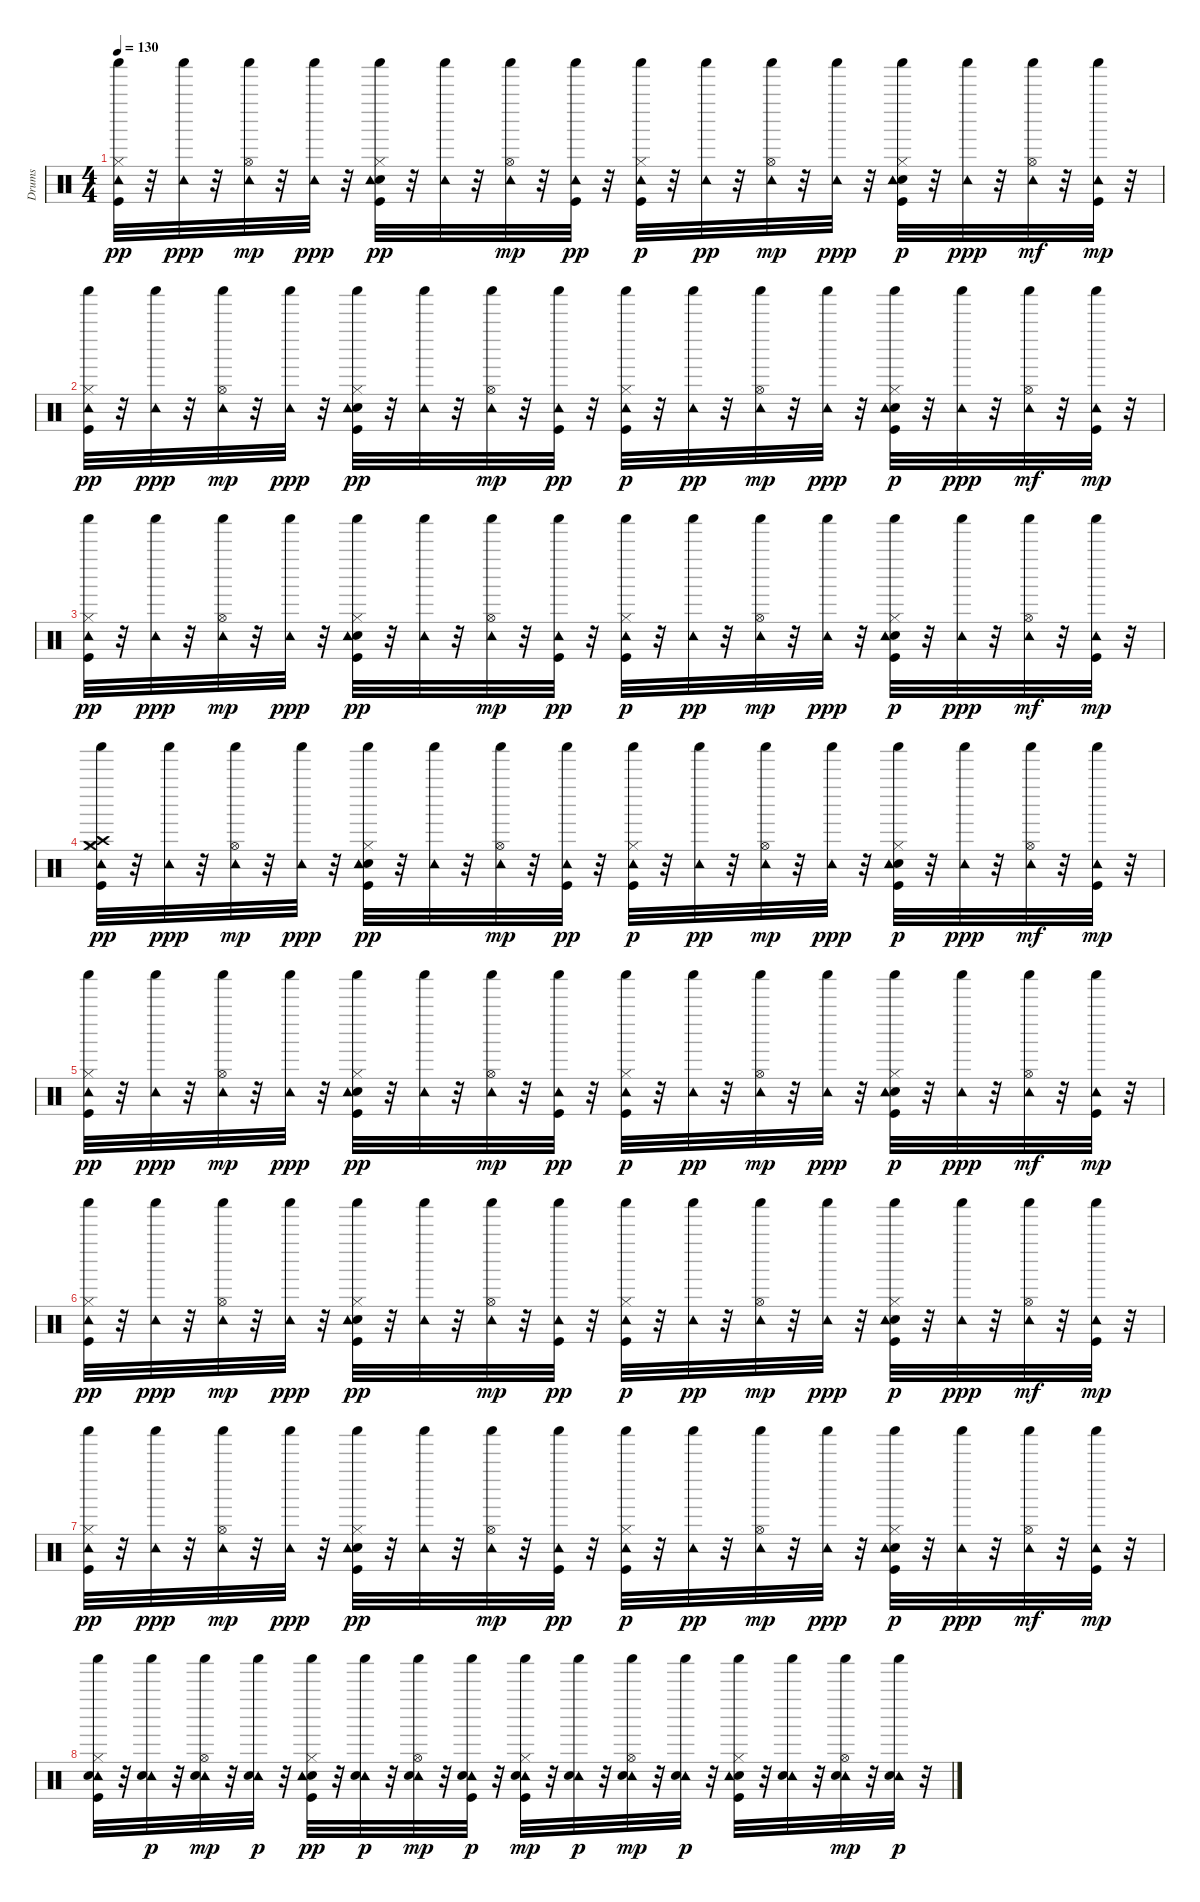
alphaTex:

\track ("Drums" "Drums") {instrument percussion}
\staff {score}
\articulation defaults
\ts (4 4)
\tempo 130
\clef neutral
\ks c
("Kick (hit)" "Hi-Hat (closed)" "Shaker (hit)" "Tambourine (hit)").32{dy pp} r.32 ("Shaker (hit)" "Tambourine (hit)").32{dy ppp} r.32 ("Hi-Hat (open)" "Shaker (hit)" "Tambourine (hit)").32{dy mp} r.32 ("Shaker (hit)" "Tambourine (hit)").32{dy ppp} r.32 ("Kick (hit)" "Hi-Hat (closed)" "Shaker (hit)" "Snare (hit) 2" "Tambourine (hit)").32{dy pp} r.32 ("Shaker (hit)" "Tambourine (hit)").32 r.32 ("Hi-Hat (open)" "Shaker (hit)" "Tambourine (hit)").32{dy mp} r.32 ("Shaker (hit)" "Kick (hit)" "Tambourine (hit)").32{dy pp} r.32 ("Kick (hit)" "Hi-Hat (closed)" "Shaker (hit)" "Tambourine (hit)").32{dy p} r.32 ("Shaker (hit)" "Tambourine (hit)").32{dy pp} r.32 ("Hi-Hat (open)" "Shaker (hit)" "Tambourine (hit)").32{dy mp} r.32 ("Shaker (hit)" "Tambourine (hit)").32{dy ppp} r.32 ("Kick (hit)" "Hi-Hat (closed)" "Shaker (hit)" "Snare (hit) 2" "Tambourine (hit)").32{dy p} r.32 ("Shaker (hit)" "Tambourine (hit)").32{dy ppp} r.32 ("Hi-Hat (open)" "Shaker (hit)" "Tambourine (hit)").32{dy mf} r.32 ("Shaker (hit)" "Tambourine (hit)" "Kick (hit)").32{dy mp} r.32 |
("Kick (hit)" "Hi-Hat (closed)" "Shaker (hit)" "Tambourine (hit)").32{dy pp} r.32 ("Shaker (hit)" "Tambourine (hit)").32{dy ppp} r.32 ("Hi-Hat (open)" "Shaker (hit)" "Tambourine (hit)").32{dy mp} r.32 ("Shaker (hit)" "Tambourine (hit)").32{dy ppp} r.32 ("Kick (hit)" "Hi-Hat (closed)" "Shaker (hit)" "Snare (hit) 2" "Tambourine (hit)").32{dy pp} r.32 ("Shaker (hit)" "Tambourine (hit)").32 r.32 ("Hi-Hat (open)" "Shaker (hit)" "Tambourine (hit)").32{dy mp} r.32 ("Shaker (hit)" "Kick (hit)" "Tambourine (hit)").32{dy pp} r.32 ("Kick (hit)" "Hi-Hat (closed)" "Shaker (hit)" "Tambourine (hit)").32{dy p} r.32 ("Shaker (hit)" "Tambourine (hit)").32{dy pp} r.32 ("Hi-Hat (open)" "Shaker (hit)" "Tambourine (hit)").32{dy mp} r.32 ("Shaker (hit)" "Tambourine (hit)").32{dy ppp} r.32 ("Kick (hit)" "Hi-Hat (closed)" "Shaker (hit)" "Snare (hit) 2" "Tambourine (hit)").32{dy p} r.32 ("Shaker (hit)" "Tambourine (hit)").32{dy ppp} r.32 ("Hi-Hat (open)" "Shaker (hit)" "Tambourine (hit)").32{dy mf} r.32 ("Shaker (hit)" "Tambourine (hit)" "Kick (hit)").32{dy mp} r.32 |
("Kick (hit)" "Hi-Hat (closed)" "Shaker (hit)" "Tambourine (hit)").32{dy pp} r.32 ("Shaker (hit)" "Tambourine (hit)").32{dy ppp} r.32 ("Hi-Hat (open)" "Shaker (hit)" "Tambourine (hit)").32{dy mp} r.32 ("Shaker (hit)" "Tambourine (hit)").32{dy ppp} r.32 ("Kick (hit)" "Hi-Hat (closed)" "Shaker (hit)" "Snare (hit) 2" "Tambourine (hit)").32{dy pp} r.32 ("Shaker (hit)" "Tambourine (hit)").32 r.32 ("Hi-Hat (open)" "Shaker (hit)" "Tambourine (hit)").32{dy mp} r.32 ("Shaker (hit)" "Kick (hit)" "Tambourine (hit)").32{dy pp} r.32 ("Kick (hit)" "Hi-Hat (closed)" "Shaker (hit)" "Tambourine (hit)").32{dy p} r.32 ("Shaker (hit)" "Tambourine (hit)").32{dy pp} r.32 ("Hi-Hat (open)" "Shaker (hit)" "Tambourine (hit)").32{dy mp} r.32 ("Shaker (hit)" "Tambourine (hit)").32{dy ppp} r.32 ("Kick (hit)" "Hi-Hat (closed)" "Shaker (hit)" "Snare (hit) 2" "Tambourine (hit)").32{dy p} r.32 ("Shaker (hit)" "Tambourine (hit)").32{dy ppp} r.32 ("Hi-Hat (open)" "Shaker (hit)" "Tambourine (hit)").32{dy mf} r.32 ("Shaker (hit)" "Tambourine (hit)" "Kick (hit)").32{dy mp} r.32 |
("Kick (hit)" "Hi-Hat (closed)" "Crash high (hit)" "Crash medium (hit)" "Shaker (hit)" "Tambourine (hit)").32{dy pp} r.32 ("Shaker (hit)" "Tambourine (hit)").32{dy ppp} r.32 ("Hi-Hat (open)" "Shaker (hit)" "Tambourine (hit)").32{dy mp} r.32 ("Shaker (hit)" "Tambourine (hit)").32{dy ppp} r.32 ("Kick (hit)" "Hi-Hat (closed)" "Shaker (hit)" "Snare (hit) 2" "Tambourine (hit)").32{dy pp} r.32 ("Shaker (hit)" "Tambourine (hit)").32 r.32 ("Hi-Hat (open)" "Shaker (hit)" "Tambourine (hit)").32{dy mp} r.32 ("Shaker (hit)" "Kick (hit)" "Tambourine (hit)").32{dy pp} r.32 ("Kick (hit)" "Hi-Hat (closed)" "Shaker (hit)" "Tambourine (hit)").32{dy p} r.32 ("Shaker (hit)" "Tambourine (hit)").32{dy pp} r.32 ("Hi-Hat (open)" "Shaker (hit)" "Tambourine (hit)").32{dy mp} r.32 ("Shaker (hit)" "Tambourine (hit)").32{dy ppp} r.32 ("Kick (hit)" "Hi-Hat (closed)" "Shaker (hit)" "Snare (hit) 2" "Tambourine (hit)").32{dy p} r.32 ("Shaker (hit)" "Tambourine (hit)").32{dy ppp} r.32 ("Hi-Hat (open)" "Shaker (hit)" "Tambourine (hit)").32{dy mf} r.32 ("Shaker (hit)" "Tambourine (hit)" "Kick (hit)").32{dy mp} r.32 |
("Kick (hit)" "Hi-Hat (closed)" "Shaker (hit)" "Tambourine (hit)").32{dy pp} r.32 ("Shaker (hit)" "Tambourine (hit)").32{dy ppp} r.32 ("Hi-Hat (open)" "Shaker (hit)" "Tambourine (hit)").32{dy mp} r.32 ("Shaker (hit)" "Tambourine (hit)").32{dy ppp} r.32 ("Kick (hit)" "Hi-Hat (closed)" "Shaker (hit)" "Snare (hit) 2" "Tambourine (hit)").32{dy pp} r.32 ("Shaker (hit)" "Tambourine (hit)").32 r.32 ("Hi-Hat (open)" "Shaker (hit)" "Tambourine (hit)").32{dy mp} r.32 ("Shaker (hit)" "Kick (hit)" "Tambourine (hit)").32{dy pp} r.32 ("Kick (hit)" "Hi-Hat (closed)" "Shaker (hit)" "Tambourine (hit)").32{dy p} r.32 ("Shaker (hit)" "Tambourine (hit)").32{dy pp} r.32 ("Hi-Hat (open)" "Shaker (hit)" "Tambourine (hit)").32{dy mp} r.32 ("Shaker (hit)" "Tambourine (hit)").32{dy ppp} r.32 ("Kick (hit)" "Hi-Hat (closed)" "Shaker (hit)" "Snare (hit) 2" "Tambourine (hit)").32{dy p} r.32 ("Shaker (hit)" "Tambourine (hit)").32{dy ppp} r.32 ("Hi-Hat (open)" "Shaker (hit)" "Tambourine (hit)").32{dy mf} r.32 ("Shaker (hit)" "Tambourine (hit)" "Kick (hit)").32{dy mp} r.32 |
("Kick (hit)" "Hi-Hat (closed)" "Shaker (hit)" "Tambourine (hit)").32{dy pp} r.32 ("Shaker (hit)" "Tambourine (hit)").32{dy ppp} r.32 ("Hi-Hat (open)" "Shaker (hit)" "Tambourine (hit)").32{dy mp} r.32 ("Shaker (hit)" "Tambourine (hit)").32{dy ppp} r.32 ("Kick (hit)" "Hi-Hat (closed)" "Shaker (hit)" "Snare (hit) 2" "Tambourine (hit)").32{dy pp} r.32 ("Shaker (hit)" "Tambourine (hit)").32 r.32 ("Hi-Hat (open)" "Shaker (hit)" "Tambourine (hit)").32{dy mp} r.32 ("Shaker (hit)" "Kick (hit)" "Tambourine (hit)").32{dy pp} r.32 ("Kick (hit)" "Hi-Hat (closed)" "Shaker (hit)" "Tambourine (hit)").32{dy p} r.32 ("Shaker (hit)" "Tambourine (hit)").32{dy pp} r.32 ("Hi-Hat (open)" "Shaker (hit)" "Tambourine (hit)").32{dy mp} r.32 ("Shaker (hit)" "Tambourine (hit)").32{dy ppp} r.32 ("Kick (hit)" "Hi-Hat (closed)" "Shaker (hit)" "Snare (hit) 2" "Tambourine (hit)").32{dy p} r.32 ("Shaker (hit)" "Tambourine (hit)").32{dy ppp} r.32 ("Hi-Hat (open)" "Shaker (hit)" "Tambourine (hit)").32{dy mf} r.32 ("Shaker (hit)" "Tambourine (hit)" "Kick (hit)").32{dy mp} r.32 |
("Kick (hit)" "Hi-Hat (closed)" "Shaker (hit)" "Tambourine (hit)").32{dy pp} r.32 ("Shaker (hit)" "Tambourine (hit)").32{dy ppp} r.32 ("Hi-Hat (open)" "Shaker (hit)" "Tambourine (hit)").32{dy mp} r.32 ("Shaker (hit)" "Tambourine (hit)").32{dy ppp} r.32 ("Kick (hit)" "Hi-Hat (closed)" "Shaker (hit)" "Snare (hit) 2" "Tambourine (hit)").32{dy pp} r.32 ("Shaker (hit)" "Tambourine (hit)").32 r.32 ("Hi-Hat (open)" "Shaker (hit)" "Tambourine (hit)").32{dy mp} r.32 ("Shaker (hit)" "Kick (hit)" "Tambourine (hit)").32{dy pp} r.32 ("Kick (hit)" "Hi-Hat (closed)" "Shaker (hit)" "Tambourine (hit)").32{dy p} r.32 ("Shaker (hit)" "Tambourine (hit)").32{dy pp} r.32 ("Hi-Hat (open)" "Shaker (hit)" "Tambourine (hit)").32{dy mp} r.32 ("Shaker (hit)" "Tambourine (hit)").32{dy ppp} r.32 ("Kick (hit)" "Hi-Hat (closed)" "Shaker (hit)" "Snare (hit) 2" "Tambourine (hit)").32{dy p} r.32 ("Shaker (hit)" "Tambourine (hit)").32{dy ppp} r.32 ("Hi-Hat (open)" "Shaker (hit)" "Tambourine (hit)").32{dy mf} r.32 ("Shaker (hit)" "Tambourine (hit)" "Kick (hit)").32{dy mp} r.32 |
("Kick (hit)" "Hi-Hat (closed)" "Shaker (hit)" "Tambourine (hit)" "Snare (hit) 2").32 r.32 ("Shaker (hit)" "Tambourine (hit)" "Snare (hit) 2").32{dy p} r.32 ("Hi-Hat (open)" "Shaker (hit)" "Tambourine (hit)" "Snare (hit) 2").32{dy mp} r.32 ("Shaker (hit)" "Tambourine (hit)" "Snare (hit) 2").32{dy p} r.32 ("Kick (hit)" "Hi-Hat (closed)" "Shaker (hit)" "Snare (hit) 2" "Tambourine (hit)").32{dy pp} r.32 ("Shaker (hit)" "Tambourine (hit)" "Snare (hit) 2").32{dy p} r.32 ("Hi-Hat (open)" "Shaker (hit)" "Tambourine (hit)" "Snare (hit) 2").32{dy mp} r.32 ("Shaker (hit)" "Kick (hit)" "Tambourine (hit)" "Snare (hit) 2").32{dy p} r.32 ("Kick (hit)" "Hi-Hat (closed)" "Shaker (hit)" "Tambourine (hit)" "Snare (hit) 2").32{dy mp} r.32 ("Shaker (hit)" "Tambourine (hit)" "Snare (hit) 2").32{dy p} r.32 ("Hi-Hat (open)" "Shaker (hit)" "Tambourine (hit)" "Snare (hit) 2").32{dy mp} r.32 ("Shaker (hit)" "Tambourine (hit)" "Snare (hit) 2").32{dy p} r.32 ("Kick (hit)" "Hi-Hat (closed)" "Shaker (hit)" "Snare (hit) 2" "Tambourine (hit)").32 r.32 ("Shaker (hit)" "Tambourine (hit)" "Snare (hit) 2").32 r.32 ("Hi-Hat (open)" "Shaker (hit)" "Tambourine (hit)" "Snare (hit) 2").32{dy mp} r.32 ("Shaker (hit)" "Tambourine (hit)" "Snare (hit) 2").32{dy p} r.32
